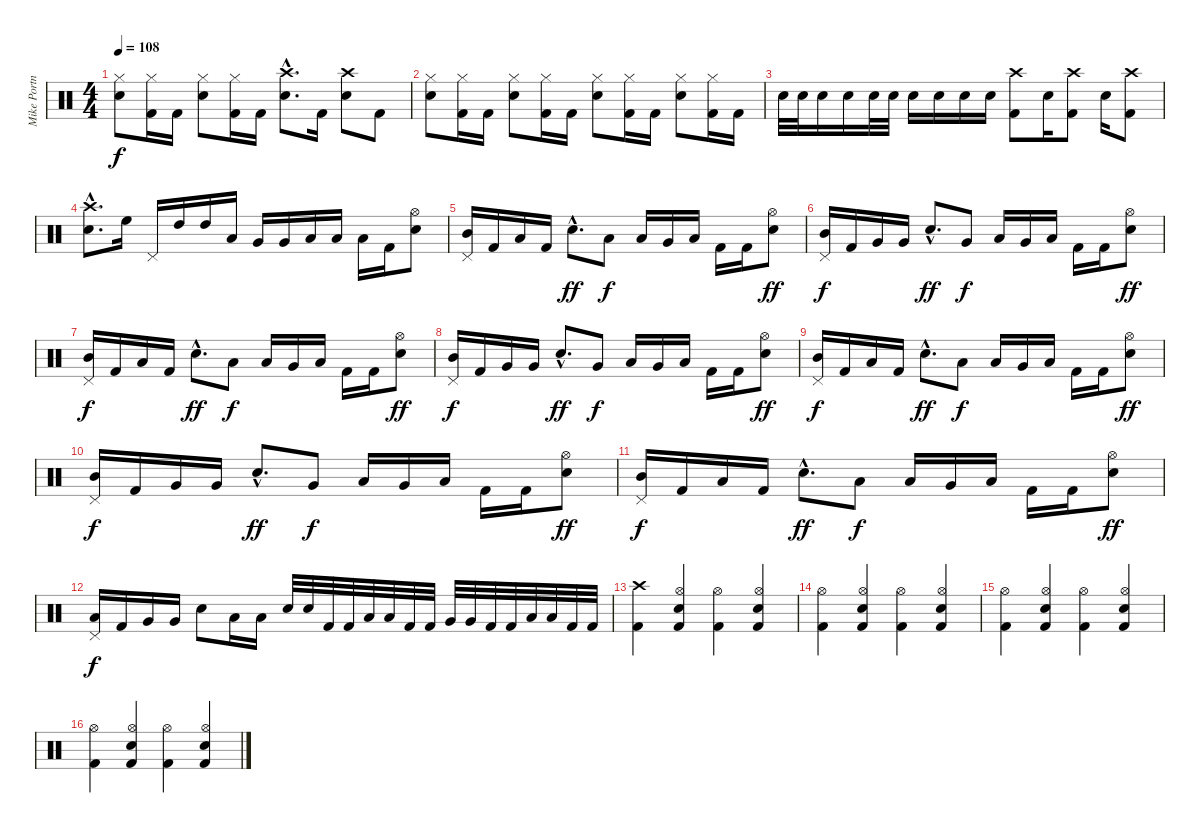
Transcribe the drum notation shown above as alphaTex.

\track ("Mike Portnoy" "Mike Portn") {instrument percussion}
\staff {score}
\articulation defaults
\ts (4 4)
\tempo 108
\clef neutral
\ks c
("Hi-Hat (closed)" "Snare (hit) 2").8{dy f} ("Hi-Hat (closed)" "Kick (hit) 2").16 "Kick (hit) 2".16 ("Hi-Hat (closed)" "Snare (hit) 2").8 ("Hi-Hat (closed)" "Kick (hit) 2").16 "Kick (hit) 2".16 ("Crash high (hit)"{hac} "Snare (hit) 2"{hac}).8{d} "Kick (hit) 2".16 ("Crash high (hit)" "Snare (hit) 2").8 "Kick (hit) 2".8 |
("Hi-Hat (closed)" "Snare (hit) 2").8 ("Hi-Hat (closed)" "Kick (hit) 2").16 "Kick (hit) 2".16 ("Hi-Hat (closed)" "Snare (hit) 2").8 ("Hi-Hat (closed)" "Kick (hit) 2").16 "Kick (hit) 2".16 ("Hi-Hat (closed)" "Snare (hit) 2").8 ("Hi-Hat (closed)" "Kick (hit) 2").16 "Kick (hit) 2".16 ("Hi-Hat (closed)" "Snare (hit) 2").8 ("Hi-Hat (closed)" "Kick (hit) 2").16 "Kick (hit) 2".16 |
"Snare (hit) 2".32 "Snare (hit) 2".32 "Snare (hit) 2".16 "Snare (hit) 2".16 "Snare (hit) 2".32 "Snare (hit) 2".32 "Snare (hit) 2".16 "Snare (hit) 2".16 "Snare (hit) 2".16 "Snare (hit) 2".16 ("Crash high (hit)" "Kick (hit) 2").8 "Snare (hit) 2".16 ("Crash high (hit)" "Kick (hit) 2").8 "Snare (hit) 2".16 ("Crash high (hit)" "Kick (hit) 2").8 |
("Crash high (hit)"{hac} "Snare (hit) 2"{hac}).8{d} "High Floor Tom (hit)".16 "Pedal Hi-Hat (hit)".16 "High Tom (hit)".16 "High Tom (hit)".16 "Low Tom (hit)".16 "Very Low Tom (hit)".16 "Very Low Tom (hit)".16 "Low Tom (hit)".16 "Low Floor Tom (hit)".16 "Low Floor Tom (hit)".16 "Kick (hit) 2".16 ("Hi-Hat (open)" "Snare (hit) 2").8 |
("Mid Tom (hit)" "Pedal Hi-Hat (hit)").16 "Kick (hit) 2".16 "Low Tom (hit)".16 "Kick (hit) 2".16 "Snare (hit) 2"{hac}.8{d dy ff} "Low Tom (hit)".8{dy f} "Low Floor Tom (hit)".16 "Very Low Tom (hit)".16 "Low Floor Tom (hit)".16 "Kick (hit) 2".16 "Kick (hit) 2".16 ("Hi-Hat (open)" "Snare (hit) 2").8{dy ff} |
("Mid Tom (hit)" "Pedal Hi-Hat (hit)").16{dy f} "Kick (hit) 2".16 "Very Low Tom (hit)".16 "Very Low Tom (hit)".16 "Snare (hit) 2"{hac}.8{d dy ff} "Very Low Tom (hit)".8{dy f} "Low Tom (hit)".16 "Very Low Tom (hit)".16 "Low Floor Tom (hit)".16 "Kick (hit) 2".16 "Kick (hit) 2".16 ("Hi-Hat (open)" "Snare (hit) 2").8{dy ff} |
("Mid Tom (hit)" "Pedal Hi-Hat (hit)").16{dy f} "Kick (hit) 2".16 "Low Tom (hit)".16 "Kick (hit) 2".16 "Snare (hit) 2"{hac}.8{d dy ff} "Low Tom (hit)".8{dy f} "Low Floor Tom (hit)".16 "Very Low Tom (hit)".16 "Low Floor Tom (hit)".16 "Kick (hit) 2".16 "Kick (hit) 2".16 ("Hi-Hat (open)" "Snare (hit) 2").8{dy ff} |
("Mid Tom (hit)" "Pedal Hi-Hat (hit)").16{dy f} "Kick (hit) 2".16 "Very Low Tom (hit)".16 "Very Low Tom (hit)".16 "Snare (hit) 2"{hac}.8{d dy ff} "Very Low Tom (hit)".8{dy f} "Low Tom (hit)".16 "Very Low Tom (hit)".16 "Low Floor Tom (hit)".16 "Kick (hit) 2".16 "Kick (hit) 2".16 ("Hi-Hat (open)" "Snare (hit) 2").8{dy ff} |
("Mid Tom (hit)" "Pedal Hi-Hat (hit)").16{dy f} "Kick (hit) 2".16 "Low Tom (hit)".16 "Kick (hit) 2".16 "Snare (hit) 2"{hac}.8{d dy ff} "Low Tom (hit)".8{dy f} "Low Floor Tom (hit)".16 "Very Low Tom (hit)".16 "Low Floor Tom (hit)".16 "Kick (hit) 2".16 "Kick (hit) 2".16 ("Hi-Hat (open)" "Snare (hit) 2").8{dy ff} |
("Mid Tom (hit)" "Pedal Hi-Hat (hit)").16{dy f} "Kick (hit) 2".16 "Very Low Tom (hit)".16 "Very Low Tom (hit)".16 "Snare (hit) 2"{hac}.8{d dy ff} "Very Low Tom (hit)".8{dy f} "Low Tom (hit)".16 "Very Low Tom (hit)".16 "Low Floor Tom (hit)".16 "Kick (hit) 2".16 "Kick (hit) 2".16 ("Hi-Hat (open)" "Snare (hit) 2").8{dy ff} |
("Mid Tom (hit)" "Pedal Hi-Hat (hit)").16{dy f} "Kick (hit) 2".16 "Low Tom (hit)".16 "Kick (hit) 2".16 "Snare (hit) 2"{hac}.8{d dy ff} "Low Tom (hit)".8{dy f} "Low Floor Tom (hit)".16 "Very Low Tom (hit)".16 "Low Floor Tom (hit)".16 "Kick (hit) 2".16 "Kick (hit) 2".16 ("Hi-Hat (open)" "Snare (hit) 2").8{dy ff} |
("Low Tom (hit)" "Pedal Hi-Hat (hit)").16{dy f} "Kick (hit) 2".16 "Very Low Tom (hit)".16 "Very Low Tom (hit)".16 "Snare (hit) 2".8 "Low Tom (hit)".16 "Low Floor Tom (hit)".16 "Electric Snare (hit)".32 "Electric Snare (hit)".32 "Kick (hit) 2".32 "Kick (hit) 2".32 "Low Tom (hit)".32 "Low Tom (hit)".32 "Kick (hit) 2".32 "Kick (hit) 2".32 "Very Low Tom (hit)".32 "Very Low Tom (hit)".32 "Kick (hit) 2".32 "Kick (hit) 2".32 "Low Floor Tom (hit)".32 "Low Floor Tom (hit)".32 "Kick (hit) 2".32 "Kick (hit) 2".32 |
("Crash high (hit)" "Kick (hit) 2").4 ("Hi-Hat (open)" "Electric Snare (hit)" "Kick (hit) 2").4 ("Hi-Hat (open)" "Kick (hit) 2").4 ("Hi-Hat (open)" "Electric Snare (hit)" "Kick (hit) 2").4 |
("Hi-Hat (open)" "Kick (hit) 2").4 ("Hi-Hat (open)" "Electric Snare (hit)" "Kick (hit) 2").4 ("Hi-Hat (open)" "Kick (hit) 2").4 ("Hi-Hat (open)" "Electric Snare (hit)" "Kick (hit) 2").4 |
("Hi-Hat (open)" "Kick (hit) 2").4 ("Hi-Hat (open)" "Electric Snare (hit)" "Kick (hit) 2").4 ("Hi-Hat (open)" "Kick (hit) 2").4 ("Hi-Hat (open)" "Electric Snare (hit)" "Kick (hit) 2").4 |
("Hi-Hat (open)" "Kick (hit) 2").4 ("Hi-Hat (open)" "Electric Snare (hit)" "Kick (hit) 2").4 ("Hi-Hat (open)" "Kick (hit) 2").4 ("Hi-Hat (open)" "Electric Snare (hit)" "Kick (hit) 2").4
